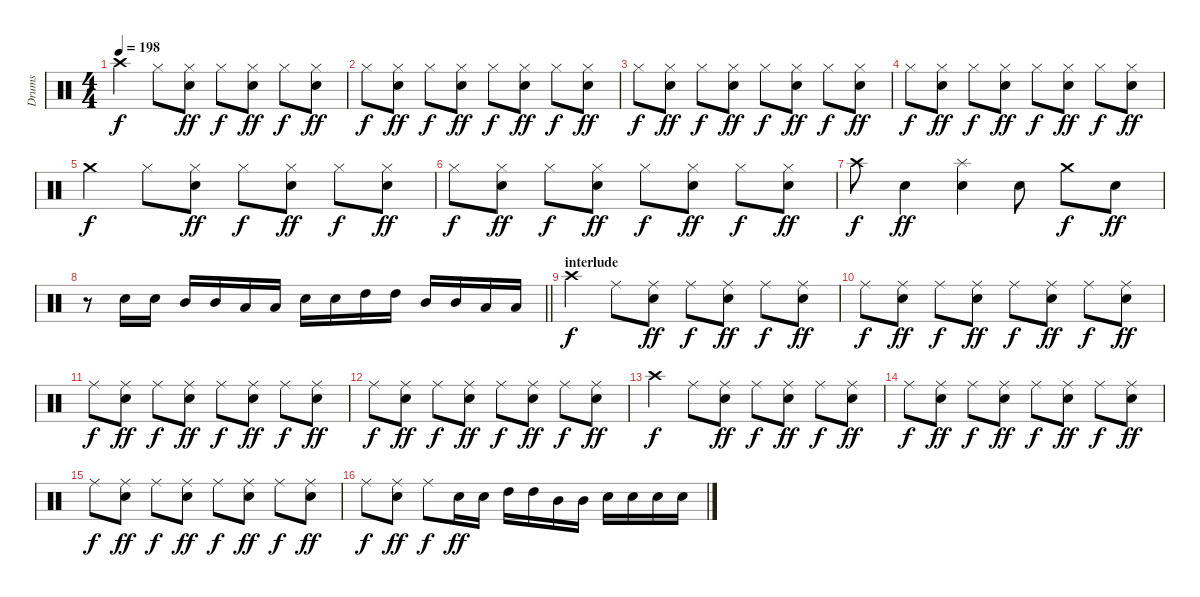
\track ("Drums" "Drums") {instrument percussion}
\staff {score}
\articulation defaults
\ts (4 4)
\tempo 198
\clef neutral
\ks c "Crash high (hit)".4{dy f} "Hi-Hat (closed)".8
("Hi-Hat (closed)" "Snare (hit) 2").8{dy ff} "Hi-Hat (closed)".8{dy f} ("Hi-Hat (closed)" "Snare (hit) 2").8{dy ff} "Hi-Hat (closed)".8{dy f} ("Hi-Hat (closed)" "Snare (hit) 2").8{dy ff} |
"Hi-Hat (closed)".8{dy f} ("Hi-Hat (closed)" "Snare (hit) 2").8{dy ff} "Hi-Hat (closed)".8{dy f} ("Hi-Hat (closed)" "Snare (hit) 2").8{dy ff} "Hi-Hat (closed)".8{dy f} ("Hi-Hat (closed)" "Snare (hit) 2").8{dy ff} "Hi-Hat (closed)".8{dy f} ("Hi-Hat (closed)" "Snare (hit) 2").8{dy ff} |
"Hi-Hat (closed)".8{dy f} ("Hi-Hat (closed)" "Snare (hit) 2").8{dy ff} "Hi-Hat (closed)".8{dy f} ("Hi-Hat (closed)" "Snare (hit) 2").8{dy ff} "Hi-Hat (closed)".8{dy f} ("Hi-Hat (closed)" "Snare (hit) 2").8{dy ff} "Hi-Hat (closed)".8{dy f} ("Hi-Hat (closed)" "Snare (hit) 2").8{dy ff} |
"Hi-Hat (closed)".8{dy f} ("Hi-Hat (closed)" "Snare (hit) 2").8{dy ff} "Hi-Hat (closed)".8{dy f} ("Hi-Hat (closed)" "Snare (hit) 2").8{dy ff} "Hi-Hat (closed)".8{dy f} ("Hi-Hat (closed)" "Snare (hit) 2").8{dy ff} "Hi-Hat (closed)".8{dy f} ("Hi-Hat (closed)" "Snare (hit) 2").8{dy ff} |
"Crash medium (hit)".4{dy f} "Hi-Hat (closed)".8 ("Hi-Hat (closed)" "Snare (hit) 2").8{dy ff} "Hi-Hat (closed)".8{dy f} ("Hi-Hat (closed)" "Snare (hit) 2").8{dy ff} "Hi-Hat (closed)".8{dy f} ("Hi-Hat (closed)" "Snare (hit) 2").8{dy ff} |
"Hi-Hat (closed)".8{dy f} ("Hi-Hat (closed)" "Snare (hit) 2").8{dy ff} "Hi-Hat (closed)".8{dy f} ("Hi-Hat (closed)" "Snare (hit) 2").8{dy ff} "Hi-Hat (closed)".8{dy f} ("Hi-Hat (closed)" "Snare (hit) 2").8{dy ff} "Hi-Hat (closed)".8{dy f} ("Hi-Hat (closed)" "Snare (hit) 2").8{dy ff} |
"Crash high (hit)".8{dy f} "Snare (hit) 2".4{dy ff} ("Splash (hit)" "Snare (hit) 2").4 "Snare (hit) 2".8 "Crash medium (hit)".8{dy f} "Snare (hit) 2".8{dy ff} |
\barLineRight lightlight
r.8 "Snare (hit) 2".16 "Snare (hit) 2".16 "Mid Tom (hit)".16 "Mid Tom (hit)".16 "Low Tom (hit)".16 "Low Tom (hit)".16 "Snare (hit) 2".16 "Snare (hit) 2".16 "High Tom (hit)".16 "High Tom (hit)".16 "Mid Tom (hit)".16 "Mid Tom (hit)".16 "Low Tom (hit)".16 "Low Tom (hit)".16 |
\section ("" "interlude")
"Crash high (hit)".4{dy f} "Ride (middle)".8 ("Ride (middle)" "Snare (hit) 2").8{dy ff} "Ride (middle)".8{dy f} ("Ride (middle)" "Snare (hit) 2").8{dy ff} "Ride (middle)".8{dy f} ("Ride (middle)" "Snare (hit) 2").8{dy ff} |
"Ride (middle)".8{dy f} ("Ride (middle)" "Snare (hit) 2").8{dy ff} "Ride (middle)".8{dy f} ("Ride (middle)" "Snare (hit) 2").8{dy ff} "Ride (middle)".8{dy f} ("Ride (middle)" "Snare (hit) 2").8{dy ff} "Ride (middle)".8{dy f} ("Ride (middle)" "Snare (hit) 2").8{dy ff} |
"Ride (middle)".8{dy f} ("Ride (middle)" "Snare (hit) 2").8{dy ff} "Ride (middle)".8{dy f} ("Ride (middle)" "Snare (hit) 2").8{dy ff} "Ride (middle)".8{dy f} ("Ride (middle)" "Snare (hit) 2").8{dy ff} "Ride (middle)".8{dy f} ("Ride (middle)" "Snare (hit) 2").8{dy ff} |
"Ride (middle)".8{dy f} ("Ride (middle)" "Snare (hit) 2").8{dy ff} "Ride (middle)".8{dy f} ("Ride (middle)" "Snare (hit) 2").8{dy ff} "Ride (middle)".8{dy f} ("Ride (middle)" "Snare (hit) 2").8{dy ff} "Ride (middle)".8{dy f} ("Ride (middle)" "Snare (hit) 2").8{dy ff} |
"Crash high (hit)".4{dy f} "Ride (middle)".8 ("Ride (middle)" "Snare (hit) 2").8{dy ff} "Ride (middle)".8{dy f} ("Ride (middle)" "Snare (hit) 2").8{dy ff} "Ride (middle)".8{dy f} ("Ride (middle)" "Snare (hit) 2").8{dy ff} |
"Ride (middle)".8{dy f} ("Ride (middle)" "Snare (hit) 2").8{dy ff} "Ride (middle)".8{dy f} ("Ride (middle)" "Snare (hit) 2").8{dy ff} "Ride (middle)".8{dy f} ("Ride (middle)" "Snare (hit) 2").8{dy ff} "Ride (middle)".8{dy f} ("Ride (middle)" "Snare (hit) 2").8{dy ff} |
"Ride (middle)".8{dy f} ("Ride (middle)" "Snare (hit) 2").8{dy ff} "Ride (middle)".8{dy f} ("Ride (middle)" "Snare (hit) 2").8{dy ff} "Ride (middle)".8{dy f} ("Ride (middle)" "Snare (hit) 2").8{dy ff} "Ride (middle)".8{dy f} ("Ride (middle)" "Snare (hit) 2").8{dy ff} |
"Ride (middle)".8{dy f} ("Ride (middle)" "Snare (hit) 2").8{dy ff} "Ride (middle)".8{dy f} "Snare (hit) 2".16{dy ff} "Snare (hit) 2".16 "High Tom (hit)".16 "High Tom (hit)".16 "Mid Tom (hit)".16 "Mid Tom (hit)".16 "Snare (hit) 2".16 "Snare (hit) 2".16 "Snare (hit) 2".16 "Snare (hit) 2".16
